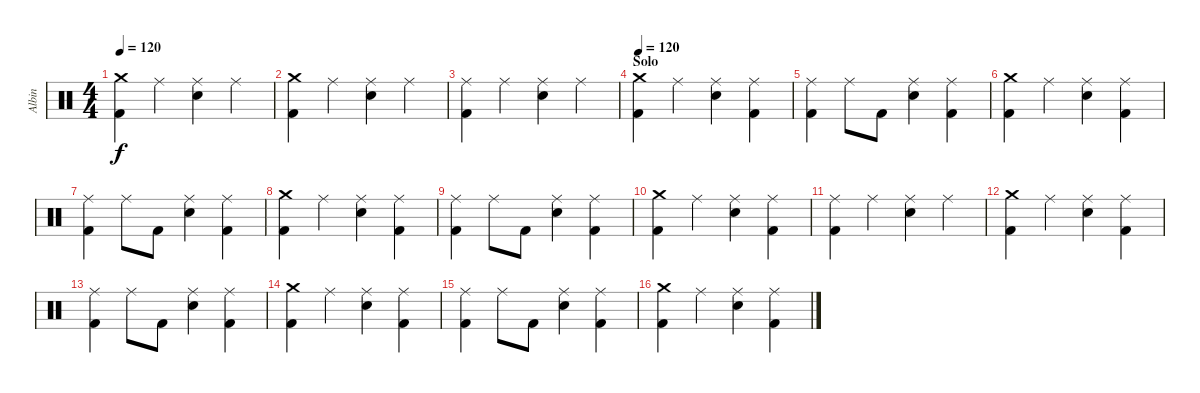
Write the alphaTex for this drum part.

\track ("Albin" "Albin") {instrument percussion}
\staff {score}
\articulation defaults
\ts (4 4)
\tempo 120
\clef neutral
\ks c
("Crash medium (hit)" "Kick (hit) 2").4{dy f} "Ride (middle)".4 ("Ride (middle)" "Electric Snare (hit)").4 "Ride (middle)".4 |
("Crash medium (hit)" "Kick (hit) 2").4 "Ride (middle)".4 ("Ride (middle)" "Electric Snare (hit)").4 "Ride (middle)".4 |
("Ride (middle)" "Kick (hit) 2").4 "Ride (middle)".4 ("Ride (middle)" "Electric Snare (hit)").4 "Ride (middle)".4 |
\section ("" "Solo")
\tempo 120
("Crash medium (hit)" "Kick (hit) 2").4 "Ride (middle)".4 ("Ride (middle)" "Electric Snare (hit)").4 ("Ride (middle)" "Kick (hit) 2").4 |
("Ride (middle)" "Kick (hit) 2").4 "Ride (middle)".8 "Kick (hit) 2".8 ("Ride (middle)" "Electric Snare (hit)").4 ("Ride (middle)" "Kick (hit) 2").4 |
("Crash medium (hit)" "Kick (hit) 2").4 "Ride (middle)".4 ("Ride (middle)" "Electric Snare (hit)").4 ("Ride (middle)" "Kick (hit) 2").4 |
("Ride (middle)" "Kick (hit) 2").4 "Ride (middle)".8 "Kick (hit) 2".8 ("Ride (middle)" "Electric Snare (hit)").4 ("Ride (middle)" "Kick (hit) 2").4 |
("Crash medium (hit)" "Kick (hit) 2").4 "Ride (middle)".4 ("Ride (middle)" "Electric Snare (hit)").4 ("Ride (middle)" "Kick (hit) 2").4 |
("Ride (middle)" "Kick (hit) 2").4 "Ride (middle)".8 "Kick (hit) 2".8 ("Ride (middle)" "Electric Snare (hit)").4 ("Ride (middle)" "Kick (hit) 2").4 |
("Crash medium (hit)" "Kick (hit) 2").4 "Ride (middle)".4 ("Ride (middle)" "Electric Snare (hit)").4 ("Ride (middle)" "Kick (hit) 2").4 |
("Ride (middle)" "Kick (hit) 2").4 "Ride (middle)".4 ("Ride (middle)" "Electric Snare (hit)").4 "Ride (middle)".4 |
("Crash medium (hit)" "Kick (hit) 2").4 "Ride (middle)".4 ("Ride (middle)" "Electric Snare (hit)").4 ("Ride (middle)" "Kick (hit) 2").4 |
("Ride (middle)" "Kick (hit) 2").4 "Ride (middle)".8 "Kick (hit) 2".8 ("Ride (middle)" "Electric Snare (hit)").4 ("Ride (middle)" "Kick (hit) 2").4 |
("Crash medium (hit)" "Kick (hit) 2").4 "Ride (middle)".4 ("Ride (middle)" "Electric Snare (hit)").4 ("Ride (middle)" "Kick (hit) 2").4 |
("Ride (middle)" "Kick (hit) 2").4 "Ride (middle)".8 "Kick (hit) 2".8 ("Ride (middle)" "Electric Snare (hit)").4 ("Ride (middle)" "Kick (hit) 2").4 |
("Crash medium (hit)" "Kick (hit) 2").4 "Ride (middle)".4 ("Ride (middle)" "Electric Snare (hit)").4 ("Ride (middle)" "Kick (hit) 2").4
